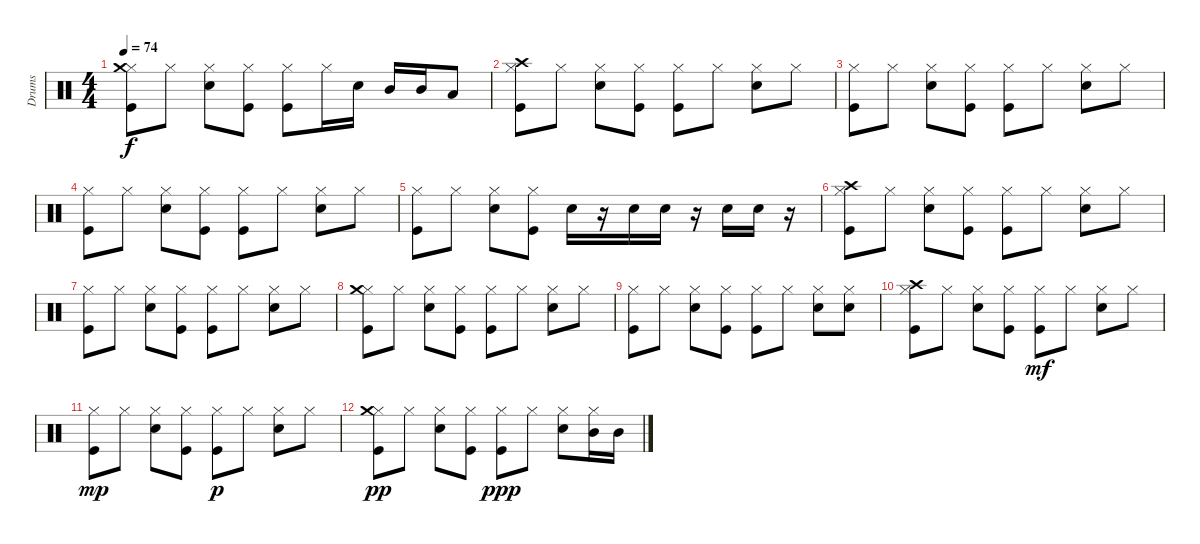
\track ("Drums" "Drums") {instrument percussion}
\staff {score}
\articulation defaults
\ts (4 4)
\tempo 74
\clef neutral
\ks c
("Kick (hit)" "Hi-Hat (closed)" "Crash medium (hit)").8{dy f} "Hi-Hat (closed)".8 ("Electric Snare (hit)" "Hi-Hat (closed)").8 ("Kick (hit)" "Hi-Hat (closed)").8 ("Kick (hit)" "Hi-Hat (closed)").8 "Hi-Hat (closed)".16 "Electric Snare (hit)".16 "Mid Tom (hit)".16 "Mid Tom (hit)".16 "Low Tom (hit)".8 |
("Kick (hit)" "Hi-Hat (closed)" "Crash high (hit)").8 "Hi-Hat (closed)".8 ("Electric Snare (hit)" "Hi-Hat (closed)").8 ("Kick (hit)" "Hi-Hat (closed)").8 ("Kick (hit)" "Hi-Hat (closed)").8 "Hi-Hat (closed)".8 ("Electric Snare (hit)" "Hi-Hat (closed)").8 "Hi-Hat (closed)".8 |
("Kick (hit)" "Hi-Hat (closed)").8 "Hi-Hat (closed)".8 ("Electric Snare (hit)" "Hi-Hat (closed)").8 ("Kick (hit)" "Hi-Hat (closed)").8 ("Kick (hit)" "Hi-Hat (closed)").8 "Hi-Hat (closed)".8 ("Electric Snare (hit)" "Hi-Hat (closed)").8 "Hi-Hat (closed)".8 |
("Kick (hit)" "Hi-Hat (closed)").8 "Hi-Hat (closed)".8 ("Electric Snare (hit)" "Hi-Hat (closed)").8 ("Kick (hit)" "Hi-Hat (closed)").8 ("Kick (hit)" "Hi-Hat (closed)").8 "Hi-Hat (closed)".8 ("Electric Snare (hit)" "Hi-Hat (closed)").8 "Hi-Hat (closed)".8 |
("Kick (hit)" "Hi-Hat (closed)").8 "Hi-Hat (closed)".8 ("Electric Snare (hit)" "Hi-Hat (closed)").8 ("Kick (hit)" "Hi-Hat (closed)").8 "Electric Snare (hit)".16 r.16 "Electric Snare (hit)".16 "Electric Snare (hit)".16 r.16 "Electric Snare (hit)".16 "Electric Snare (hit)".16 r.16 |
("Kick (hit)" "Hi-Hat (closed)" "Crash high (hit)").8 "Hi-Hat (closed)".8 ("Electric Snare (hit)" "Hi-Hat (closed)").8 ("Kick (hit)" "Hi-Hat (closed)").8 ("Kick (hit)" "Hi-Hat (closed)").8 "Hi-Hat (closed)".8 ("Electric Snare (hit)" "Hi-Hat (closed)").8 "Hi-Hat (closed)".8 |
("Kick (hit)" "Hi-Hat (closed)").8 "Hi-Hat (closed)".8 ("Electric Snare (hit)" "Hi-Hat (closed)").8 ("Kick (hit)" "Hi-Hat (closed)").8 ("Kick (hit)" "Hi-Hat (closed)").8 "Hi-Hat (closed)".8 ("Electric Snare (hit)" "Hi-Hat (closed)").8 "Hi-Hat (closed)".8 |
("Kick (hit)" "Hi-Hat (closed)" "Crash medium (hit)").8 "Hi-Hat (closed)".8 ("Electric Snare (hit)" "Hi-Hat (closed)").8 ("Kick (hit)" "Hi-Hat (closed)").8 ("Kick (hit)" "Hi-Hat (closed)").8 "Hi-Hat (closed)".8 ("Electric Snare (hit)" "Hi-Hat (closed)").8 "Hi-Hat (closed)".8 |
("Kick (hit)" "Hi-Hat (closed)").8 "Hi-Hat (closed)".8 ("Electric Snare (hit)" "Hi-Hat (closed)").8 ("Kick (hit)" "Hi-Hat (closed)").8 ("Kick (hit)" "Hi-Hat (closed)").8 "Hi-Hat (closed)".8 ("Electric Snare (hit)" "Hi-Hat (closed)").8 ("Electric Snare (hit)" "Hi-Hat (closed)").8 |
("Kick (hit)" "Hi-Hat (closed)" "Crash high (hit)").8 "Hi-Hat (closed)".8 ("Electric Snare (hit)" "Hi-Hat (closed)").8 ("Kick (hit)" "Hi-Hat (closed)").8 ("Kick (hit)" "Hi-Hat (closed)").8{dy mf} "Hi-Hat (closed)".8 ("Electric Snare (hit)" "Hi-Hat (closed)").8 "Hi-Hat (closed)".8 |
("Kick (hit)" "Hi-Hat (closed)").8{dy mp} "Hi-Hat (closed)".8 ("Electric Snare (hit)" "Hi-Hat (closed)").8 ("Kick (hit)" "Hi-Hat (closed)").8 ("Kick (hit)" "Hi-Hat (closed)").8{dy p} "Hi-Hat (closed)".8 ("Electric Snare (hit)" "Hi-Hat (closed)").8 "Hi-Hat (closed)".8 |
("Kick (hit)" "Hi-Hat (closed)" "Crash medium (hit)").8{dy pp} "Hi-Hat (closed)".8 ("Electric Snare (hit)" "Hi-Hat (closed)").8 ("Kick (hit)" "Hi-Hat (closed)").8 ("Kick (hit)" "Hi-Hat (closed)").8{dy ppp} "Hi-Hat (closed)".8 ("Electric Snare (hit)" "Hi-Hat (closed)").8 ("Mid Tom (hit)" "Hi-Hat (closed)").16 "Mid Tom (hit)".16
